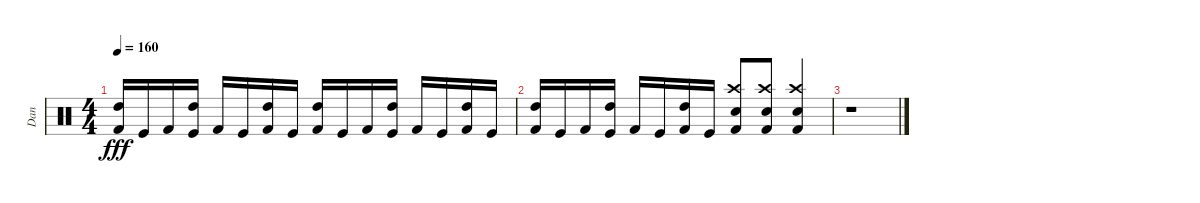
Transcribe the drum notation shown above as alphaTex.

\track ("Dan " "Dan ") {instrument percussion}
\staff {score}
\articulation defaults
\ts (4 4)
\tempo 160
\clef neutral
\ks c
("High Tom (hit)" "Kick (hit) 2").16{dy fff} "Kick (hit)".16 "Kick (hit) 2".16 ("High Tom (hit)" "Kick (hit)").16 "Kick (hit) 2".16 "Kick (hit)".16 ("High Tom (hit)" "Kick (hit) 2").16 "Kick (hit)".16 ("High Tom (hit)" "Kick (hit) 2").16 "Kick (hit)".16 "Kick (hit) 2".16 ("High Tom (hit)" "Kick (hit)").16 "Kick (hit) 2".16 "Kick (hit)".16 ("High Tom (hit)" "Kick (hit) 2").16 "Kick (hit)".16 |
("High Tom (hit)" "Kick (hit) 2").16 "Kick (hit)".16 "Kick (hit) 2".16 ("High Tom (hit)" "Kick (hit)").16 "Kick (hit) 2".16 "Kick (hit)".16 ("High Tom (hit)" "Kick (hit) 2").16 "Kick (hit)".16 ("Crash high (hit)" "Electric Snare (hit)" "Kick (hit) 2").8 ("Crash high (hit)" "Electric Snare (hit)" "Kick (hit) 2").8 ("Crash high (hit)" "Electric Snare (hit)" "Kick (hit) 2").4 |
r.1
